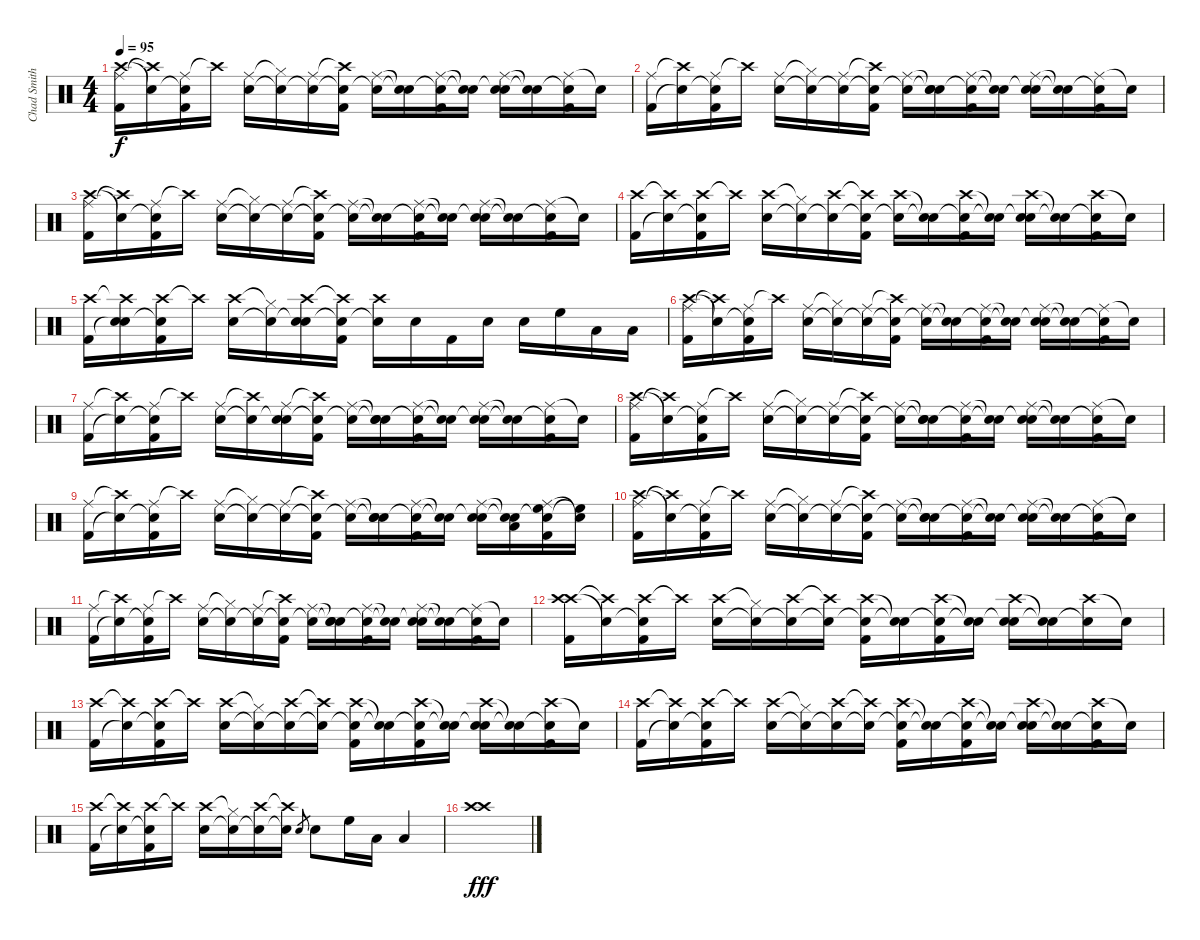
\track ("Chad Smith" "Chad Smith") {instrument percussion}
\staff {score}
\articulation defaults
\ts (4 4)
\tempo 95
\clef neutral
\ks c
("Ride (middle)" "Crash high (hit)" "Kick (hit) 2").16{dy f} ("Crash high (hit)"{t} "Snare (hit)"{t}).16 ("Ride (middle)" "Snare (hit)"{t} "Kick (hit) 2").16 "Crash high (hit)"{t}.16 ("Ride (middle)" "Snare (hit) 2").16 ("Hi-Hat (closed)"{t} "Snare (hit)"{t}).16 ("Ride (middle)" "Snare (hit)"{t}).16 ("Crash high (hit)"{t} "Snare (hit)"{t} "Kick (hit) 2").16 ("Ride (middle)" "Snare (hit)"{t}).16 ("Snare (hit)"{t} "Snare (hit)"{t}).16 ("Ride (middle)" "Snare (hit)"{t} "Kick (hit) 2").16 ("Snare (hit)"{t} "Snare (hit)"{t}).16 ("Ride (middle)" "Snare (hit)"{t} "Snare (hit) 2").16 ("Snare (hit)"{t} "Snare (hit)"{t}).16 ("Ride (middle)" "Snare (hit)"{t} "Kick (hit) 2").16 "Snare (hit)"{t}.16 |
("Ride (middle)" "Kick (hit) 2").16 ("Crash high (hit)"{t} "Snare (hit)"{t}).16 ("Ride (middle)" "Snare (hit)"{t} "Kick (hit) 2").16 "Crash high (hit)"{t}.16 ("Ride (middle)" "Snare (hit) 2").16 ("Hi-Hat (closed)"{t} "Snare (hit)"{t}).16 ("Ride (middle)" "Snare (hit)"{t}).16 ("Crash high (hit)"{t} "Snare (hit)"{t} "Kick (hit) 2").16 ("Ride (middle)" "Snare (hit)"{t}).16 ("Snare (hit)"{t} "Snare (hit)"{t} "Snare (hit) 2").16 ("Ride (middle)" "Snare (hit)"{t} "Kick (hit) 2").16 ("Snare (hit)"{t} "Snare (hit)"{t}).16 ("Ride (middle)" "Snare (hit)"{t} "Snare (hit) 2").16 ("Snare (hit)"{t} "Snare (hit)"{t}).16 ("Ride (middle)" "Snare (hit)"{t} "Kick (hit) 2").16 "Snare (hit)"{t}.16 |
("Ride (middle)" "Crash high (hit)" "Kick (hit) 2").16 ("Crash high (hit)"{t} "Snare (hit)"{t}).16 ("Ride (middle)" "Snare (hit)"{t} "Kick (hit) 2").16 "Crash high (hit)"{t}.16 ("Ride (middle)" "Snare (hit) 2").16 ("Hi-Hat (closed)"{t} "Snare (hit)"{t}).16 ("Ride (middle)" "Snare (hit)"{t}).16 ("Crash high (hit)"{t} "Snare (hit)"{t} "Kick (hit) 2").16 ("Ride (middle)" "Snare (hit)"{t}).16 ("Snare (hit)"{t} "Snare (hit)"{t}).16 ("Ride (middle)" "Snare (hit)"{t} "Kick (hit) 2").16 ("Snare (hit)"{t} "Snare (hit)"{t}).16 ("Ride (middle)" "Snare (hit)"{t} "Snare (hit) 2").16 ("Snare (hit)"{t} "Snare (hit)"{t}).16 ("Ride (middle)" "Snare (hit)"{t} "Kick (hit) 2").16 "Snare (hit)"{t}.16 |
("Crash high (hit)" "Kick (hit) 2").16 ("Crash high (hit)"{t} "Snare (hit)"{t}).16 ("Crash high (hit)" "Snare (hit)"{t} "Kick (hit) 2").16 "Crash high (hit)"{t}.16 ("Crash high (hit)" "Snare (hit) 2").16 ("Hi-Hat (closed)"{t} "Snare (hit)"{t}).16 ("Crash high (hit)" "Snare (hit)"{t}).16 ("Crash high (hit)"{t} "Snare (hit)"{t} "Kick (hit) 2").16 ("Crash high (hit)" "Snare (hit)"{t}).16 ("Snare (hit)"{t} "Snare (hit)"{t}).16 ("Crash high (hit)" "Snare (hit)"{t} "Kick (hit) 2").16 ("Snare (hit)"{t} "Snare (hit)"{t}).16 ("Crash high (hit)" "Snare (hit)"{t} "Snare (hit) 2").16 ("Snare (hit)"{t} "Snare (hit)"{t}).16 ("Crash high (hit)" "Snare (hit)"{t} "Kick (hit) 2").16 "Snare (hit)"{t}.16 |
("Crash high (hit)" "Kick (hit) 2").16 ("Crash high (hit)"{t} "Snare (hit)"{t} "Snare (hit) 2").16 ("Crash high (hit)" "Snare (hit)"{t} "Kick (hit) 2").16 "Crash high (hit)"{t}.16 ("Crash high (hit)" "Snare (hit) 2").16 ("Hi-Hat (closed)"{t} "Snare (hit)"{t}).16 ("Crash high (hit)" "Snare (hit)"{t} "Snare (hit) 2").16 ("Crash high (hit)"{t} "Snare (hit)"{t} "Kick (hit) 2").16 ("Crash high (hit)" "Snare (hit)"{t}).16 "Snare (hit) 2".16 "Kick (hit) 2".16 "Snare (hit) 2".16 "Snare (hit) 2".16 "High Floor Tom (hit)".16 "Low Floor Tom (hit)".16 "Low Floor Tom (hit)".16 |
("Ride (middle)" "Crash high (hit)" "Kick (hit) 2").16 ("Crash high (hit)"{t} "Snare (hit)"{t}).16 ("Ride (middle)" "Snare (hit)"{t} "Kick (hit) 2").16 "Crash high (hit)"{t}.16 ("Ride (middle)" "Snare (hit) 2").16 ("Hi-Hat (closed)"{t} "Snare (hit)"{t}).16 ("Ride (middle)" "Snare (hit)"{t}).16 ("Crash high (hit)"{t} "Snare (hit)"{t} "Kick (hit) 2").16 ("Ride (middle)" "Snare (hit)"{t}).16 ("Snare (hit)"{t} "Snare (hit)"{t}).16 ("Ride (middle)" "Snare (hit)"{t} "Kick (hit) 2").16 ("Snare (hit)"{t} "Snare (hit)"{t}).16 ("Ride (middle)" "Snare (hit)"{t} "Snare (hit) 2").16 ("Snare (hit)"{t} "Snare (hit)"{t}).16 ("Ride (middle)" "Snare (hit)"{t} "Kick (hit) 2").16 "Snare (hit)"{t}.16 |
("Ride (middle)" "Kick (hit) 2").16 ("Crash high (hit)"{t} "Snare (hit)"{t}).16 ("Ride (middle)" "Snare (hit)"{t} "Kick (hit) 2").16 "Crash high (hit)"{t}.16 ("Ride (middle)" "Snare (hit) 2").16 ("Crash high (hit)"{t} "Snare (hit)"{t}).16 ("Ride (middle)" "Snare (hit)"{t} "Snare (hit) 2").16 ("Crash high (hit)"{t} "Snare (hit)"{t} "Kick (hit) 2").16 ("Ride (middle)" "Snare (hit)"{t}).16 ("Snare (hit)"{t} "Snare (hit)"{t} "Snare (hit) 2").16 ("Ride (middle)" "Snare (hit)"{t} "Kick (hit) 2").16 ("Snare (hit)"{t} "Snare (hit)"{t}).16 ("Ride (middle)" "Snare (hit)"{t} "Snare (hit) 2").16 ("Snare (hit)"{t} "Snare (hit)"{t}).16 ("Ride (middle)" "Snare (hit)"{t} "Kick (hit) 2").16 "Snare (hit)"{t}.16 |
("Ride (middle)" "Crash high (hit)" "Kick (hit) 2").16 ("Crash high (hit)"{t} "Snare (hit)"{t}).16 ("Ride (middle)" "Snare (hit)"{t} "Kick (hit) 2").16 "Crash high (hit)"{t}.16 ("Ride (middle)" "Snare (hit) 2").16 ("Hi-Hat (closed)"{t} "Snare (hit)"{t}).16 ("Ride (middle)" "Snare (hit)"{t}).16 ("Crash high (hit)"{t} "Snare (hit)"{t} "Kick (hit) 2").16 ("Ride (middle)" "Snare (hit)"{t}).16 ("Snare (hit)"{t} "Snare (hit)"{t} "Snare (hit) 2").16 ("Ride (middle)" "Snare (hit)"{t} "Kick (hit) 2").16 ("Snare (hit)"{t} "Snare (hit)"{t}).16 ("Ride (middle)" "Snare (hit)"{t} "Snare (hit) 2").16 ("Snare (hit)"{t} "Snare (hit)"{t}).16 ("Ride (middle)" "Snare (hit)"{t} "Kick (hit) 2").16 "Snare (hit)"{t}.16 |
("Ride (middle)" "Kick (hit) 2").16 ("Crash high (hit)"{t} "Snare (hit)"{t}).16 ("Ride (middle)" "Snare (hit)"{t} "Kick (hit) 2").16 "Crash high (hit)"{t}.16 ("Ride (middle)" "Snare (hit) 2").16 ("Hi-Hat (closed)"{t} "Snare (hit)"{t}).16 ("Ride (middle)" "Snare (hit)"{t}).16 ("Crash high (hit)"{t} "Snare (hit)"{t} "Kick (hit) 2").16 ("Ride (middle)" "Snare (hit)"{t}).16 ("Snare (hit)"{t} "Snare (hit)"{t} "Snare (hit) 2").16 ("Ride (middle)" "Snare (hit)"{t} "Kick (hit) 2").16 ("Snare (hit)"{t} "Snare (hit)"{t}).16 ("Ride (middle)" "Snare (hit)"{t} "Snare (hit) 2").16 ("Snare (hit)"{t} "Snare (hit)"{t} "Low Floor Tom (hit)").16 ("Ride (middle)" "Snare (hit)"{t} "High Floor Tom (hit)" "Kick (hit) 2").16 ("Snare (hit)"{t} "High Floor Tom (hit)"{t}).16 |
("Ride (middle)" "Crash high (hit)" "Kick (hit) 2").16 ("Crash high (hit)"{t} "Snare (hit)"{t}).16 ("Ride (middle)" "Snare (hit)"{t} "Kick (hit) 2").16 "Crash high (hit)"{t}.16 ("Ride (middle)" "Snare (hit) 2").16 ("Hi-Hat (closed)"{t} "Snare (hit)"{t}).16 ("Ride (middle)" "Snare (hit)"{t}).16 ("Crash high (hit)"{t} "Snare (hit)"{t} "Kick (hit) 2").16 ("Ride (middle)" "Snare (hit)"{t}).16 ("Snare (hit)"{t} "Snare (hit)"{t} "Snare (hit) 2").16 ("Ride (middle)" "Snare (hit)"{t} "Kick (hit) 2").16 ("Snare (hit)"{t} "Snare (hit)"{t}).16 ("Ride (middle)" "Snare (hit)"{t} "Snare (hit) 2").16 ("Snare (hit)"{t} "Snare (hit)"{t}).16 ("Ride (middle)" "Snare (hit)"{t} "Kick (hit) 2").16 "Snare (hit)"{t}.16 |
("Ride (middle)" "Kick (hit) 2").16 ("Crash high (hit)"{t} "Snare (hit)"{t}).16 ("Ride (middle)" "Snare (hit)"{t} "Kick (hit) 2").16 "Crash high (hit)"{t}.16 ("Ride (middle)" "Snare (hit) 2").16 ("Hi-Hat (closed)"{t} "Snare (hit)"{t}).16 ("Ride (middle)" "Snare (hit)"{t}).16 ("Crash high (hit)"{t} "Snare (hit)"{t} "Kick (hit) 2").16 ("Ride (middle)" "Snare (hit)"{t}).16 ("Snare (hit)"{t} "Snare (hit)"{t} "Snare (hit) 2").16 ("Ride (middle)" "Snare (hit)"{t} "Kick (hit) 2").16 ("Snare (hit)"{t} "Snare (hit)"{t}).16 ("Ride (middle)" "Snare (hit)"{t} "Snare (hit) 2").16 ("Snare (hit)"{t} "Snare (hit)"{t}).16 ("Ride (middle)" "Snare (hit)"{t} "Kick (hit) 2").16 "Snare (hit)"{t}.16 |
("Crash high (hit)" "Crash high (hit)" "Kick (hit) 2").16 ("Crash high (hit)"{t} "Snare (hit)"{t}).16 ("Crash high (hit)" "Snare (hit)"{t} "Kick (hit) 2").16 "Crash high (hit)"{t}.16 ("Crash high (hit)" "Snare (hit) 2").16 ("Hi-Hat (closed)"{t} "Snare (hit)"{t}).16 ("Crash high (hit)" "Snare (hit)"{t}).16 ("Crash high (hit)"{t} "Snare (hit)"{t}).16 ("Crash high (hit)" "Snare (hit)"{t} "Kick (hit) 2").16 ("Snare (hit)"{t} "Snare (hit)"{t}).16 ("Crash high (hit)" "Snare (hit)"{t} "Kick (hit) 2").16 ("Snare (hit)"{t} "Snare (hit)"{t}).16 ("Crash high (hit)" "Snare (hit)"{t} "Snare (hit) 2").16 ("Snare (hit)"{t} "Snare (hit)"{t}).16 ("Crash high (hit)" "Snare (hit)"{t}).16 "Snare (hit)"{t}.16 |
("Crash high (hit)" "Kick (hit) 2").16 ("Crash high (hit)"{t} "Snare (hit)"{t}).16 ("Crash high (hit)" "Snare (hit)"{t} "Kick (hit) 2").16 "Crash high (hit)"{t}.16 ("Crash high (hit)" "Snare (hit) 2").16 ("Hi-Hat (closed)"{t} "Snare (hit)"{t}).16 ("Crash high (hit)" "Snare (hit)"{t}).16 ("Crash high (hit)"{t} "Snare (hit)"{t}).16 ("Crash high (hit)" "Snare (hit)"{t} "Kick (hit) 2").16 ("Snare (hit)"{t} "Snare (hit)"{t}).16 ("Crash high (hit)" "Snare (hit)"{t} "Kick (hit) 2").16 ("Snare (hit)"{t} "Snare (hit)"{t}).16 ("Crash high (hit)" "Snare (hit)"{t} "Snare (hit) 2").16 ("Snare (hit)"{t} "Snare (hit)"{t}).16 ("Crash high (hit)" "Snare (hit)"{t} "Kick (hit) 2").16 "Snare (hit)"{t}.16 |
("Crash high (hit)" "Kick (hit) 2").16 ("Crash high (hit)"{t} "Snare (hit)"{t}).16 ("Crash high (hit)" "Snare (hit)"{t} "Kick (hit) 2").16 "Crash high (hit)"{t}.16 ("Crash high (hit)" "Snare (hit) 2").16 ("Hi-Hat (closed)"{t} "Snare (hit)"{t}).16 ("Crash high (hit)" "Snare (hit)"{t}).16 ("Crash high (hit)"{t} "Snare (hit)"{t}).16 ("Crash high (hit)" "Snare (hit)"{t} "Kick (hit) 2").16 ("Snare (hit)"{t} "Snare (hit)"{t}).16 ("Crash high (hit)" "Snare (hit)"{t} "Kick (hit) 2").16 ("Snare (hit)"{t} "Snare (hit)"{t}).16 ("Crash high (hit)" "Snare (hit)"{t} "Snare (hit) 2").16 ("Snare (hit)"{t} "Snare (hit)"{t}).16 ("Crash high (hit)" "Snare (hit)"{t} "Kick (hit) 2").16 "Snare (hit)"{t}.16 |
("Crash high (hit)" "Kick (hit) 2").16 ("Crash high (hit)"{t} "Snare (hit)"{t}).16 ("Crash high (hit)" "Snare (hit)"{t} "Kick (hit) 2").16 "Crash high (hit)"{t}.16 ("Crash high (hit)" "Snare (hit) 2").16 ("Hi-Hat (closed)"{t} "Snare (hit)"{t}).16 ("Crash high (hit)" "Snare (hit)"{t}).16 ("Crash high (hit)"{t} "Snare (hit)"{t}).16 "Snare (hit) 2".8{gr} "Snare (hit) 2".8 "High Floor Tom (hit)".16 "Low Tom (hit)".16 "Low Floor Tom (hit)".4 |
("Crash high (hit)" "Crash high (hit)").1{dy fff}
